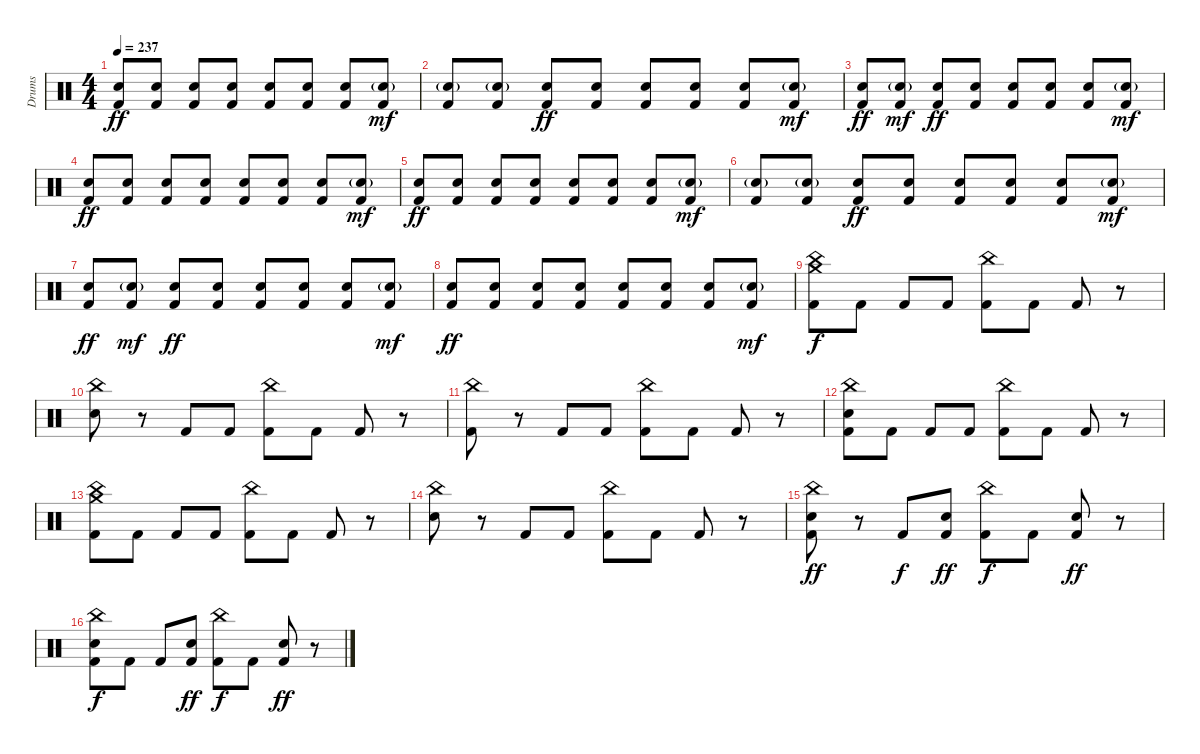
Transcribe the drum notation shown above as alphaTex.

\track ("Drums" "Drums") {instrument percussion}
\staff {score}
\articulation defaults
\ts (4 4)
\tempo 237
\clef neutral
\ks c
("Electric Snare (hit)" "Kick (hit) 2").8{dy ff} ("Electric Snare (hit)" "Kick (hit) 2").8 ("Electric Snare (hit)" "Kick (hit) 2").8 ("Electric Snare (hit)" "Kick (hit) 2").8 ("Electric Snare (hit)" "Kick (hit) 2").8 ("Electric Snare (hit)" "Kick (hit) 2").8 ("Electric Snare (hit)" "Kick (hit) 2").8 ("Electric Snare (hit)"{g} "Kick (hit) 2").8{dy mf} |
("Electric Snare (hit)"{g} "Kick (hit) 2").8 ("Electric Snare (hit)"{g} "Kick (hit) 2").8 ("Electric Snare (hit)" "Kick (hit) 2").8{dy ff} ("Electric Snare (hit)" "Kick (hit) 2").8 ("Electric Snare (hit)" "Kick (hit) 2").8 ("Electric Snare (hit)" "Kick (hit) 2").8 ("Electric Snare (hit)" "Kick (hit) 2").8 ("Electric Snare (hit)"{g} "Kick (hit) 2").8{dy mf} |
("Electric Snare (hit)" "Kick (hit) 2").8{dy ff} ("Electric Snare (hit)"{g} "Kick (hit) 2").8{dy mf} ("Electric Snare (hit)" "Kick (hit) 2").8{dy ff} ("Electric Snare (hit)" "Kick (hit) 2").8 ("Electric Snare (hit)" "Kick (hit) 2").8 ("Electric Snare (hit)" "Kick (hit) 2").8 ("Electric Snare (hit)" "Kick (hit) 2").8 ("Electric Snare (hit)"{g} "Kick (hit) 2").8{dy mf} |
("Electric Snare (hit)" "Kick (hit) 2").8{dy ff} ("Electric Snare (hit)" "Kick (hit) 2").8 ("Electric Snare (hit)" "Kick (hit) 2").8 ("Electric Snare (hit)" "Kick (hit) 2").8 ("Electric Snare (hit)" "Kick (hit) 2").8 ("Electric Snare (hit)" "Kick (hit) 2").8 ("Electric Snare (hit)" "Kick (hit) 2").8 ("Electric Snare (hit)"{g} "Kick (hit) 2").8{dy mf} |
("Electric Snare (hit)" "Kick (hit) 2").8{dy ff} ("Electric Snare (hit)" "Kick (hit) 2").8 ("Electric Snare (hit)" "Kick (hit) 2").8 ("Electric Snare (hit)" "Kick (hit) 2").8 ("Electric Snare (hit)" "Kick (hit) 2").8 ("Electric Snare (hit)" "Kick (hit) 2").8 ("Electric Snare (hit)" "Kick (hit) 2").8 ("Electric Snare (hit)"{g} "Kick (hit) 2").8{dy mf} |
("Electric Snare (hit)"{g} "Kick (hit) 2").8 ("Electric Snare (hit)"{g} "Kick (hit) 2").8 ("Electric Snare (hit)" "Kick (hit) 2").8{dy ff} ("Electric Snare (hit)" "Kick (hit) 2").8 ("Electric Snare (hit)" "Kick (hit) 2").8 ("Electric Snare (hit)" "Kick (hit) 2").8 ("Electric Snare (hit)" "Kick (hit) 2").8 ("Electric Snare (hit)"{g} "Kick (hit) 2").8{dy mf} |
("Electric Snare (hit)" "Kick (hit) 2").8{dy ff} ("Electric Snare (hit)"{g} "Kick (hit) 2").8{dy mf} ("Electric Snare (hit)" "Kick (hit) 2").8{dy ff} ("Electric Snare (hit)" "Kick (hit) 2").8 ("Electric Snare (hit)" "Kick (hit) 2").8 ("Electric Snare (hit)" "Kick (hit) 2").8 ("Electric Snare (hit)" "Kick (hit) 2").8 ("Electric Snare (hit)"{g} "Kick (hit) 2").8{dy mf} |
("Electric Snare (hit)" "Kick (hit) 2").8{dy ff} ("Electric Snare (hit)" "Kick (hit) 2").8 ("Electric Snare (hit)" "Kick (hit) 2").8 ("Electric Snare (hit)" "Kick (hit) 2").8 ("Electric Snare (hit)" "Kick (hit) 2").8 ("Electric Snare (hit)" "Kick (hit) 2").8 ("Electric Snare (hit)" "Kick (hit) 2").8 ("Electric Snare (hit)"{g} "Kick (hit) 2").8{dy mf} |
("Crash medium (hit)" "China (hit)" "Kick (hit) 2").8{dy f} "Kick (hit) 2".8 "Kick (hit) 2".8 "Kick (hit) 2".8 ("China (hit)" "Kick (hit) 2").8 "Kick (hit) 2".8 "Kick (hit) 2".8 r.8 |
("China (hit)" "Electric Snare (hit)").8 r.8 "Kick (hit) 2".8 "Kick (hit) 2".8 ("China (hit)" "Kick (hit) 2").8 "Kick (hit) 2".8 "Kick (hit) 2".8 r.8 |
("China (hit)" "Kick (hit) 2").8 r.8 "Kick (hit) 2".8 "Kick (hit) 2".8 ("China (hit)" "Kick (hit) 2").8 "Kick (hit) 2".8 "Kick (hit) 2".8 r.8 |
("China (hit)" "Electric Snare (hit)" "Kick (hit) 2").8 "Kick (hit) 2".8 "Kick (hit) 2".8 "Kick (hit) 2".8 ("China (hit)" "Kick (hit) 2").8 "Kick (hit) 2".8 "Kick (hit) 2".8 r.8 |
("Crash medium (hit)" "China (hit)" "Kick (hit) 2").8 "Kick (hit) 2".8 "Kick (hit) 2".8 "Kick (hit) 2".8 ("China (hit)" "Kick (hit) 2").8 "Kick (hit) 2".8 "Kick (hit) 2".8 r.8 |
("China (hit)" "Electric Snare (hit)").8 r.8 "Kick (hit) 2".8 "Kick (hit) 2".8 ("China (hit)" "Kick (hit) 2").8 "Kick (hit) 2".8 "Kick (hit) 2".8 r.8 |
("China (hit)" "Electric Snare (hit)" "Kick (hit) 2").8{dy ff} r.8 "Kick (hit) 2".8{dy f} ("Electric Snare (hit)" "Kick (hit) 2").8{dy ff} ("China (hit)" "Kick (hit) 2").8{dy f} "Kick (hit) 2".8 ("Electric Snare (hit)" "Kick (hit) 2").8{dy ff} r.8 |
("China (hit)" "Electric Snare (hit)" "Kick (hit) 2").8{dy f} "Kick (hit) 2".8 "Kick (hit) 2".8 ("Electric Snare (hit)" "Kick (hit) 2").8{dy ff} ("China (hit)" "Kick (hit) 2").8{dy f} "Kick (hit) 2".8 ("Electric Snare (hit)" "Kick (hit) 2").8{dy ff} r.8
